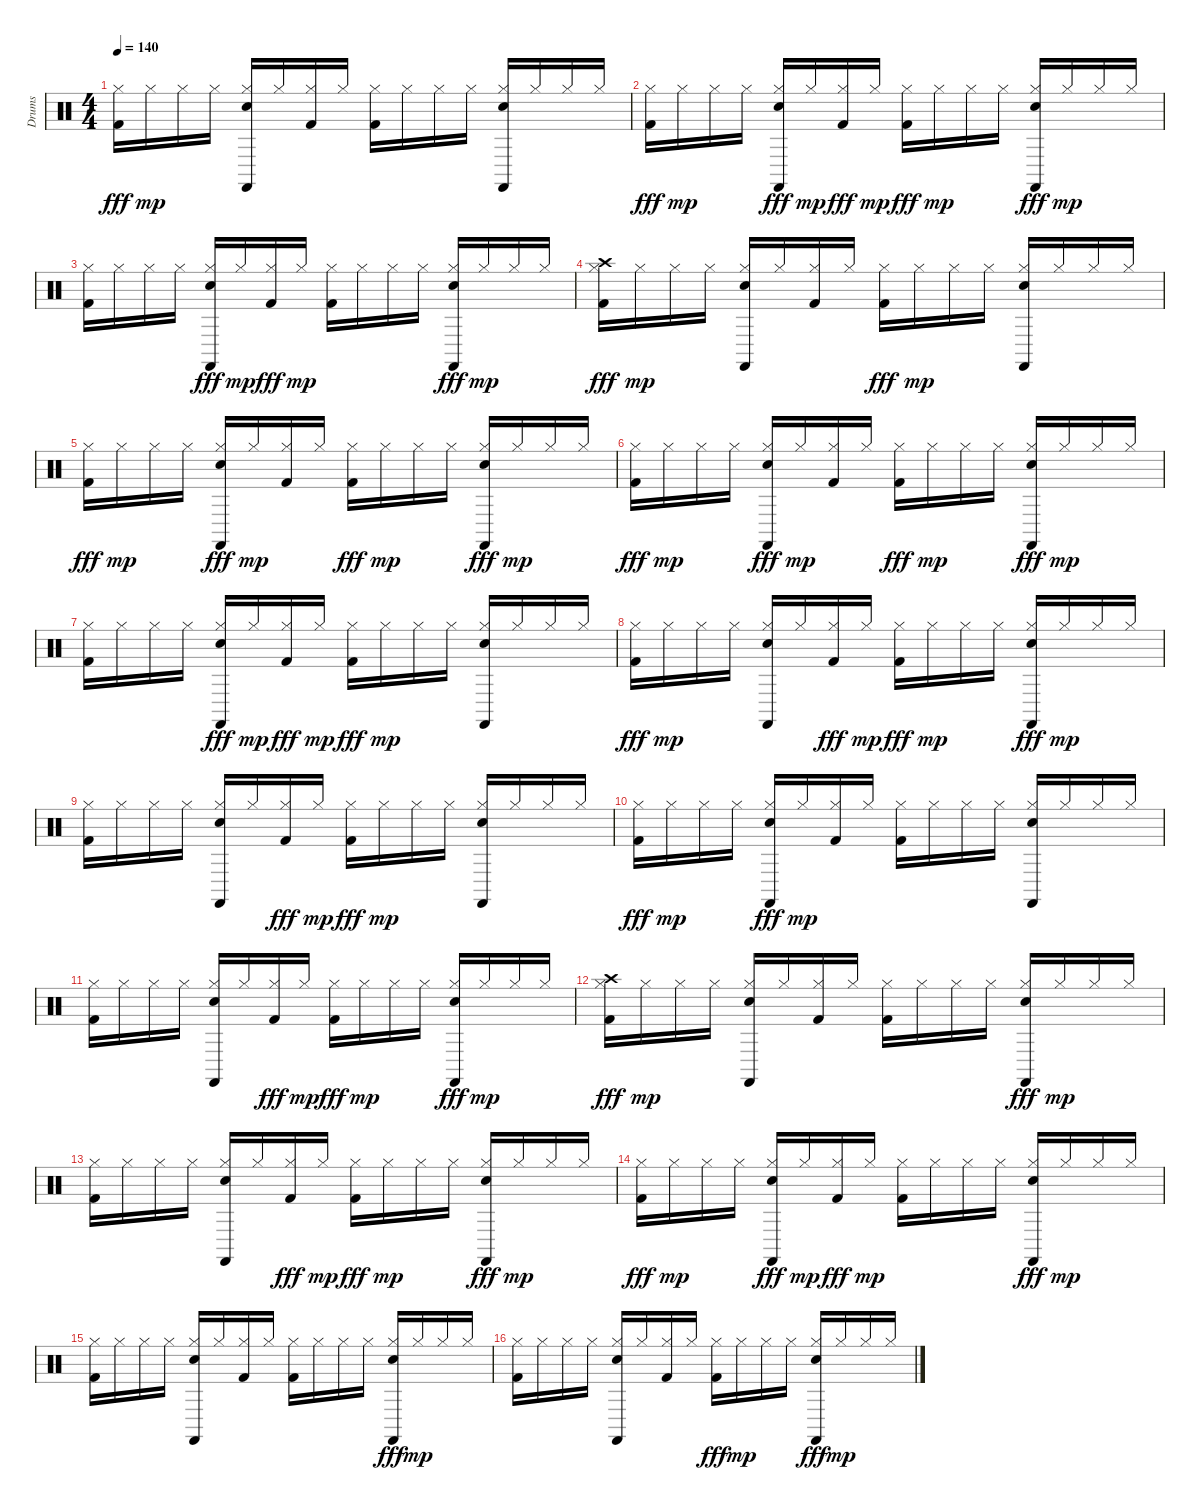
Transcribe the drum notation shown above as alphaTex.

\track ("Drums" "Drums") {instrument percussion}
\staff {score}
\articulation defaults
\ts (4 4)
\tempo 140
\clef neutral
\ks c
("Hi-Hat (closed)" "Kick (hit) 2").16{dy fff} "Hi-Hat (closed)".16{dy mp} "Hi-Hat (closed)".16 "Hi-Hat (closed)".16 ("Snare (hit) 2" "Castanets (hit)" "Hi-Hat (closed)").16 "Hi-Hat (closed)".16 ("Kick (hit) 2" "Hi-Hat (closed)").16 "Hi-Hat (closed)".16 ("Kick (hit) 2" "Hi-Hat (closed)").16 "Hi-Hat (closed)".16 "Hi-Hat (closed)".16 "Hi-Hat (closed)".16 ("Castanets (hit)" "Snare (hit) 2" "Hi-Hat (closed)").16 "Hi-Hat (closed)".16 "Hi-Hat (closed)".16 "Hi-Hat (closed)".16 |
("Hi-Hat (closed)" "Kick (hit) 2").16{dy fff} "Hi-Hat (closed)".16{dy mp} "Hi-Hat (closed)".16 "Hi-Hat (closed)".16 ("Snare (hit) 2" "Hi-Hat (closed)" "Castanets (hit)").16{dy fff} "Hi-Hat (closed)".16{dy mp} ("Hi-Hat (closed)" "Kick (hit) 2").16{dy fff} "Hi-Hat (closed)".16{dy mp} ("Hi-Hat (closed)" "Kick (hit) 2").16{dy fff} "Hi-Hat (closed)".16{dy mp} "Hi-Hat (closed)".16 "Hi-Hat (closed)".16 ("Hi-Hat (closed)" "Snare (hit) 2" "Castanets (hit)").16{dy fff} "Hi-Hat (closed)".16{dy mp} "Hi-Hat (closed)".16 "Hi-Hat (closed)".16 |
("Kick (hit) 2" "Hi-Hat (closed)").16 "Hi-Hat (closed)".16 "Hi-Hat (closed)".16 "Hi-Hat (closed)".16 ("Castanets (hit)" "Hi-Hat (closed)" "Snare (hit) 2").16{dy fff} "Hi-Hat (closed)".16{dy mp} ("Hi-Hat (closed)" "Kick (hit) 2").16{dy fff} "Hi-Hat (closed)".16{dy mp} ("Kick (hit) 2" "Hi-Hat (closed)").16 "Hi-Hat (closed)".16 "Hi-Hat (closed)".16 "Hi-Hat (closed)".16 ("Snare (hit) 2" "Hi-Hat (closed)" "Castanets (hit)").16{dy fff} "Hi-Hat (closed)".16{dy mp} "Hi-Hat (closed)".16 "Hi-Hat (closed)".16 |
("Crash high (hit)" "Hi-Hat (closed)" "Kick (hit) 2").16{dy fff} "Hi-Hat (closed)".16{dy mp} "Hi-Hat (closed)".16 "Hi-Hat (closed)".16 ("Castanets (hit)" "Snare (hit) 2" "Hi-Hat (closed)").16 "Hi-Hat (closed)".16 ("Kick (hit) 2" "Hi-Hat (closed)").16 "Hi-Hat (closed)".16 ("Hi-Hat (closed)" "Kick (hit) 2").16{dy fff} "Hi-Hat (closed)".16{dy mp} "Hi-Hat (closed)".16 "Hi-Hat (closed)".16 ("Castanets (hit)" "Snare (hit) 2" "Hi-Hat (closed)").16 "Hi-Hat (closed)".16 "Hi-Hat (closed)".16 "Hi-Hat (closed)".16 |
("Hi-Hat (closed)" "Kick (hit) 2").16{dy fff} "Hi-Hat (closed)".16{dy mp} "Hi-Hat (closed)".16 "Hi-Hat (closed)".16 ("Hi-Hat (closed)" "Snare (hit) 2" "Castanets (hit)").16{dy fff} "Hi-Hat (closed)".16{dy mp} ("Kick (hit) 2" "Hi-Hat (closed)").16 "Hi-Hat (closed)".16 ("Hi-Hat (closed)" "Kick (hit) 2").16{dy fff} "Hi-Hat (closed)".16{dy mp} "Hi-Hat (closed)".16 "Hi-Hat (closed)".16 ("Snare (hit) 2" "Hi-Hat (closed)" "Castanets (hit)").16{dy fff} "Hi-Hat (closed)".16{dy mp} "Hi-Hat (closed)".16 "Hi-Hat (closed)".16 |
("Hi-Hat (closed)" "Kick (hit) 2").16{dy fff} "Hi-Hat (closed)".16{dy mp} "Hi-Hat (closed)".16 "Hi-Hat (closed)".16 ("Castanets (hit)" "Hi-Hat (closed)" "Snare (hit) 2").16{dy fff} "Hi-Hat (closed)".16{dy mp} ("Kick (hit) 2" "Hi-Hat (closed)").16 "Hi-Hat (closed)".16 ("Hi-Hat (closed)" "Kick (hit) 2").16{dy fff} "Hi-Hat (closed)".16{dy mp} "Hi-Hat (closed)".16 "Hi-Hat (closed)".16 ("Snare (hit) 2" "Hi-Hat (closed)" "Castanets (hit)").16{dy fff} "Hi-Hat (closed)".16{dy mp} "Hi-Hat (closed)".16 "Hi-Hat (closed)".16 |
("Kick (hit) 2" "Hi-Hat (closed)").16 "Hi-Hat (closed)".16 "Hi-Hat (closed)".16 "Hi-Hat (closed)".16 ("Snare (hit) 2" "Hi-Hat (closed)" "Castanets (hit)").16{dy fff} "Hi-Hat (closed)".16{dy mp} ("Hi-Hat (closed)" "Kick (hit) 2").16{dy fff} "Hi-Hat (closed)".16{dy mp} ("Hi-Hat (closed)" "Kick (hit) 2").16{dy fff} "Hi-Hat (closed)".16{dy mp} "Hi-Hat (closed)".16 "Hi-Hat (closed)".16 ("Snare (hit) 2" "Castanets (hit)" "Hi-Hat (closed)").16 "Hi-Hat (closed)".16 "Hi-Hat (closed)".16 "Hi-Hat (closed)".16 |
("Hi-Hat (closed)" "Kick (hit) 2").16{dy fff} "Hi-Hat (closed)".16{dy mp} "Hi-Hat (closed)".16 "Hi-Hat (closed)".16 ("Snare (hit) 2" "Castanets (hit)" "Hi-Hat (closed)").16 "Hi-Hat (closed)".16 ("Hi-Hat (closed)" "Kick (hit) 2").16{dy fff} "Hi-Hat (closed)".16{dy mp} ("Hi-Hat (closed)" "Kick (hit) 2").16{dy fff} "Hi-Hat (closed)".16{dy mp} "Hi-Hat (closed)".16 "Hi-Hat (closed)".16 ("Snare (hit) 2" "Hi-Hat (closed)" "Castanets (hit)").16{dy fff} "Hi-Hat (closed)".16{dy mp} "Hi-Hat (closed)".16 "Hi-Hat (closed)".16 |
("Kick (hit) 2" "Hi-Hat (closed)").16 "Hi-Hat (closed)".16 "Hi-Hat (closed)".16 "Hi-Hat (closed)".16 ("Snare (hit) 2" "Castanets (hit)" "Hi-Hat (closed)").16 "Hi-Hat (closed)".16 ("Hi-Hat (closed)" "Kick (hit) 2").16{dy fff} "Hi-Hat (closed)".16{dy mp} ("Hi-Hat (closed)" "Kick (hit) 2").16{dy fff} "Hi-Hat (closed)".16{dy mp} "Hi-Hat (closed)".16 "Hi-Hat (closed)".16 ("Snare (hit) 2" "Castanets (hit)" "Hi-Hat (closed)").16 "Hi-Hat (closed)".16 "Hi-Hat (closed)".16 "Hi-Hat (closed)".16 |
("Hi-Hat (closed)" "Kick (hit) 2").16{dy fff} "Hi-Hat (closed)".16{dy mp} "Hi-Hat (closed)".16 "Hi-Hat (closed)".16 ("Snare (hit) 2" "Hi-Hat (closed)" "Castanets (hit)").16{dy fff} "Hi-Hat (closed)".16{dy mp} ("Kick (hit) 2" "Hi-Hat (closed)").16 "Hi-Hat (closed)".16 ("Kick (hit) 2" "Hi-Hat (closed)").16 "Hi-Hat (closed)".16 "Hi-Hat (closed)".16 "Hi-Hat (closed)".16 ("Castanets (hit)" "Snare (hit) 2" "Hi-Hat (closed)").16 "Hi-Hat (closed)".16 "Hi-Hat (closed)".16 "Hi-Hat (closed)".16 |
("Kick (hit) 2" "Hi-Hat (closed)").16 "Hi-Hat (closed)".16 "Hi-Hat (closed)".16 "Hi-Hat (closed)".16 ("Snare (hit) 2" "Castanets (hit)" "Hi-Hat (closed)").16 "Hi-Hat (closed)".16 ("Hi-Hat (closed)" "Kick (hit) 2").16{dy fff} "Hi-Hat (closed)".16{dy mp} ("Hi-Hat (closed)" "Kick (hit) 2").16{dy fff} "Hi-Hat (closed)".16{dy mp} "Hi-Hat (closed)".16 "Hi-Hat (closed)".16 ("Hi-Hat (closed)" "Snare (hit) 2" "Castanets (hit)").16{dy fff} "Hi-Hat (closed)".16{dy mp} "Hi-Hat (closed)".16 "Hi-Hat (closed)".16 |
("Hi-Hat (closed)" "Kick (hit) 2" "Crash high (hit)").16{dy fff} "Hi-Hat (closed)".16{dy mp} "Hi-Hat (closed)".16 "Hi-Hat (closed)".16 ("Castanets (hit)" "Snare (hit) 2" "Hi-Hat (closed)").16 "Hi-Hat (closed)".16 ("Kick (hit) 2" "Hi-Hat (closed)").16 "Hi-Hat (closed)".16 ("Kick (hit) 2" "Hi-Hat (closed)").16 "Hi-Hat (closed)".16 "Hi-Hat (closed)".16 "Hi-Hat (closed)".16 ("Snare (hit) 2" "Hi-Hat (closed)" "Castanets (hit)").16{dy fff} "Hi-Hat (closed)".16{dy mp} "Hi-Hat (closed)".16 "Hi-Hat (closed)".16 |
("Kick (hit) 2" "Hi-Hat (closed)").16 "Hi-Hat (closed)".16 "Hi-Hat (closed)".16 "Hi-Hat (closed)".16 ("Castanets (hit)" "Snare (hit) 2" "Hi-Hat (closed)").16 "Hi-Hat (closed)".16 ("Hi-Hat (closed)" "Kick (hit) 2").16{dy fff} "Hi-Hat (closed)".16{dy mp} ("Hi-Hat (closed)" "Kick (hit) 2").16{dy fff} "Hi-Hat (closed)".16{dy mp} "Hi-Hat (closed)".16 "Hi-Hat (closed)".16 ("Castanets (hit)" "Hi-Hat (closed)" "Snare (hit) 2").16{dy fff} "Hi-Hat (closed)".16{dy mp} "Hi-Hat (closed)".16 "Hi-Hat (closed)".16 |
("Hi-Hat (closed)" "Kick (hit) 2").16{dy fff} "Hi-Hat (closed)".16{dy mp} "Hi-Hat (closed)".16 "Hi-Hat (closed)".16 ("Castanets (hit)" "Hi-Hat (closed)" "Snare (hit) 2").16{dy fff} "Hi-Hat (closed)".16{dy mp} ("Hi-Hat (closed)" "Kick (hit) 2").16{dy fff} "Hi-Hat (closed)".16{dy mp} ("Kick (hit) 2" "Hi-Hat (closed)").16 "Hi-Hat (closed)".16 "Hi-Hat (closed)".16 "Hi-Hat (closed)".16 ("Hi-Hat (closed)" "Castanets (hit)" "Snare (hit) 2").16{dy fff} "Hi-Hat (closed)".16{dy mp} "Hi-Hat (closed)".16 "Hi-Hat (closed)".16 |
("Kick (hit) 2" "Hi-Hat (closed)").16 "Hi-Hat (closed)".16 "Hi-Hat (closed)".16 "Hi-Hat (closed)".16 ("Snare (hit) 2" "Castanets (hit)" "Hi-Hat (closed)").16 "Hi-Hat (closed)".16 ("Kick (hit) 2" "Hi-Hat (closed)").16 "Hi-Hat (closed)".16 ("Kick (hit) 2" "Hi-Hat (closed)").16 "Hi-Hat (closed)".16 "Hi-Hat (closed)".16 "Hi-Hat (closed)".16 ("Hi-Hat (closed)" "Castanets (hit)" "Snare (hit) 2").16{dy fff} "Hi-Hat (closed)".16{dy mp} "Hi-Hat (closed)".16 "Hi-Hat (closed)".16 |
("Kick (hit) 2" "Hi-Hat (closed)").16 "Hi-Hat (closed)".16 "Hi-Hat (closed)".16 "Hi-Hat (closed)".16 ("Snare (hit) 2" "Castanets (hit)" "Hi-Hat (closed)").16 "Hi-Hat (closed)".16 ("Kick (hit) 2" "Hi-Hat (closed)").16 "Hi-Hat (closed)".16 ("Hi-Hat (closed)" "Kick (hit) 2").16{dy fff} "Hi-Hat (closed)".16{dy mp} "Hi-Hat (closed)".16 "Hi-Hat (closed)".16 ("Snare (hit) 2" "Hi-Hat (closed)" "Castanets (hit)").16{dy fff} "Hi-Hat (closed)".16{dy mp} "Hi-Hat (closed)".16 "Hi-Hat (closed)".16
